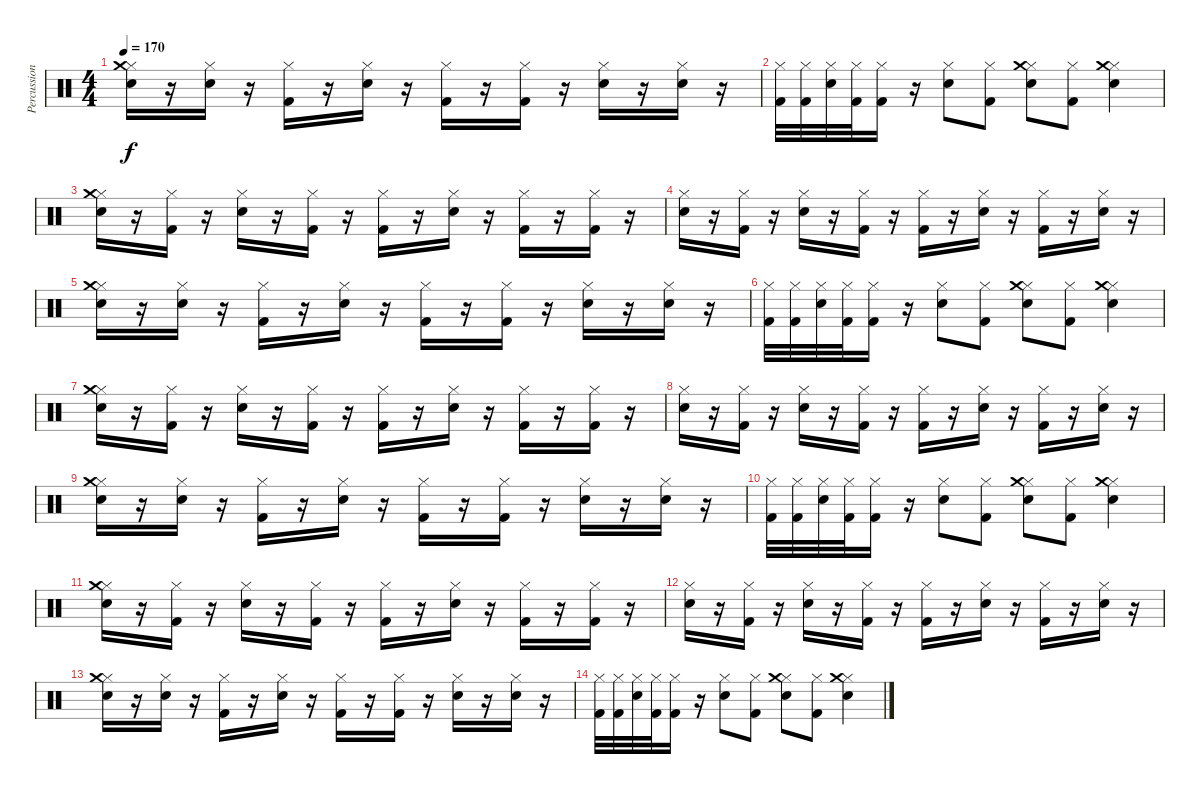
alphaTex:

\track ("Percussion" "Percussion") {instrument percussion}
\staff {score}
\articulation defaults
\ts (4 4)
\tempo 170
\clef neutral
\ks c
("Hi-Hat (closed)" "Snare (hit) 2" "Crash medium (hit)").16{dy f} r.16 ("Snare (hit) 2" "Hi-Hat (closed)").16 r.16 ("Kick (hit) 2" "Hi-Hat (closed)").16 r.16 ("Snare (hit) 2" "Hi-Hat (closed)").16 r.16 ("Kick (hit) 2" "Hi-Hat (closed)").16 r.16 ("Kick (hit) 2" "Hi-Hat (closed)").16 r.16 ("Snare (hit) 2" "Hi-Hat (closed)").16 r.16 ("Snare (hit) 2" "Hi-Hat (closed)").16 r.16 |
("Kick (hit) 2" "Hi-Hat (closed)").32 ("Kick (hit) 2" "Hi-Hat (closed)").32 ("Snare (hit) 2" "Hi-Hat (closed)").32 ("Kick (hit) 2" "Hi-Hat (closed)").32 ("Kick (hit) 2" "Hi-Hat (closed)").16 r.16 ("Snare (hit) 2" "Hi-Hat (closed)").8 ("Kick (hit) 2" "Hi-Hat (closed)").8 ("Snare (hit) 2" "Hi-Hat (closed)" "Crash medium (hit)").8 ("Kick (hit) 2" "Hi-Hat (closed)").8 ("Snare (hit) 2" "Hi-Hat (closed)" "Crash medium (hit)").4 |
("Snare (hit) 2" "Hi-Hat (closed)" "Crash medium (hit)").16 r.16 ("Kick (hit) 2" "Hi-Hat (closed)").16 r.16 ("Snare (hit) 2" "Hi-Hat (closed)").16 r.16 ("Kick (hit) 2" "Hi-Hat (closed)").16 r.16 ("Kick (hit) 2" "Hi-Hat (closed)").16 r.16 ("Snare (hit) 2" "Hi-Hat (closed)").16 r.16 ("Kick (hit) 2" "Hi-Hat (closed)").16 r.16 ("Kick (hit) 2" "Hi-Hat (closed)").16 r.16 |
("Snare (hit) 2" "Hi-Hat (closed)").16 r.16 ("Kick (hit) 2" "Hi-Hat (closed)").16 r.16 ("Snare (hit) 2" "Hi-Hat (closed)").16 r.16 ("Kick (hit) 2" "Hi-Hat (closed)").16 r.16 ("Kick (hit) 2" "Hi-Hat (closed)").16 r.16 ("Snare (hit) 2" "Hi-Hat (closed)").16 r.16 ("Kick (hit) 2" "Hi-Hat (closed)").16 r.16 ("Snare (hit) 2" "Hi-Hat (closed)").16 r.16 |
("Hi-Hat (closed)" "Snare (hit) 2" "Crash medium (hit)").16 r.16 ("Snare (hit) 2" "Hi-Hat (closed)").16 r.16 ("Kick (hit) 2" "Hi-Hat (closed)").16 r.16 ("Snare (hit) 2" "Hi-Hat (closed)").16 r.16 ("Kick (hit) 2" "Hi-Hat (closed)").16 r.16 ("Kick (hit) 2" "Hi-Hat (closed)").16 r.16 ("Snare (hit) 2" "Hi-Hat (closed)").16 r.16 ("Snare (hit) 2" "Hi-Hat (closed)").16 r.16 |
("Kick (hit) 2" "Hi-Hat (closed)").32 ("Kick (hit) 2" "Hi-Hat (closed)").32 ("Snare (hit) 2" "Hi-Hat (closed)").32 ("Kick (hit) 2" "Hi-Hat (closed)").32 ("Kick (hit) 2" "Hi-Hat (closed)").16 r.16 ("Snare (hit) 2" "Hi-Hat (closed)").8 ("Kick (hit) 2" "Hi-Hat (closed)").8 ("Snare (hit) 2" "Hi-Hat (closed)" "Crash medium (hit)").8 ("Kick (hit) 2" "Hi-Hat (closed)").8 ("Snare (hit) 2" "Hi-Hat (closed)" "Crash medium (hit)").4 |
("Snare (hit) 2" "Hi-Hat (closed)" "Crash medium (hit)").16 r.16 ("Kick (hit) 2" "Hi-Hat (closed)").16 r.16 ("Snare (hit) 2" "Hi-Hat (closed)").16 r.16 ("Kick (hit) 2" "Hi-Hat (closed)").16 r.16 ("Kick (hit) 2" "Hi-Hat (closed)").16 r.16 ("Snare (hit) 2" "Hi-Hat (closed)").16 r.16 ("Kick (hit) 2" "Hi-Hat (closed)").16 r.16 ("Kick (hit) 2" "Hi-Hat (closed)").16 r.16 |
("Snare (hit) 2" "Hi-Hat (closed)").16 r.16 ("Kick (hit) 2" "Hi-Hat (closed)").16 r.16 ("Snare (hit) 2" "Hi-Hat (closed)").16 r.16 ("Kick (hit) 2" "Hi-Hat (closed)").16 r.16 ("Kick (hit) 2" "Hi-Hat (closed)").16 r.16 ("Snare (hit) 2" "Hi-Hat (closed)").16 r.16 ("Kick (hit) 2" "Hi-Hat (closed)").16 r.16 ("Snare (hit) 2" "Hi-Hat (closed)").16 r.16 |
("Hi-Hat (closed)" "Snare (hit) 2" "Crash medium (hit)").16 r.16 ("Snare (hit) 2" "Hi-Hat (closed)").16 r.16 ("Kick (hit) 2" "Hi-Hat (closed)").16 r.16 ("Snare (hit) 2" "Hi-Hat (closed)").16 r.16 ("Kick (hit) 2" "Hi-Hat (closed)").16 r.16 ("Kick (hit) 2" "Hi-Hat (closed)").16 r.16 ("Snare (hit) 2" "Hi-Hat (closed)").16 r.16 ("Snare (hit) 2" "Hi-Hat (closed)").16 r.16 |
("Kick (hit) 2" "Hi-Hat (closed)").32 ("Kick (hit) 2" "Hi-Hat (closed)").32 ("Snare (hit) 2" "Hi-Hat (closed)").32 ("Kick (hit) 2" "Hi-Hat (closed)").32 ("Kick (hit) 2" "Hi-Hat (closed)").16 r.16 ("Snare (hit) 2" "Hi-Hat (closed)").8 ("Kick (hit) 2" "Hi-Hat (closed)").8 ("Snare (hit) 2" "Hi-Hat (closed)" "Crash medium (hit)").8 ("Kick (hit) 2" "Hi-Hat (closed)").8 ("Snare (hit) 2" "Hi-Hat (closed)" "Crash medium (hit)").4 |
("Snare (hit) 2" "Hi-Hat (closed)" "Crash medium (hit)").16 r.16 ("Kick (hit) 2" "Hi-Hat (closed)").16 r.16 ("Snare (hit) 2" "Hi-Hat (closed)").16 r.16 ("Kick (hit) 2" "Hi-Hat (closed)").16 r.16 ("Kick (hit) 2" "Hi-Hat (closed)").16 r.16 ("Snare (hit) 2" "Hi-Hat (closed)").16 r.16 ("Kick (hit) 2" "Hi-Hat (closed)").16 r.16 ("Kick (hit) 2" "Hi-Hat (closed)").16 r.16 |
("Snare (hit) 2" "Hi-Hat (closed)").16 r.16 ("Kick (hit) 2" "Hi-Hat (closed)").16 r.16 ("Snare (hit) 2" "Hi-Hat (closed)").16 r.16 ("Kick (hit) 2" "Hi-Hat (closed)").16 r.16 ("Kick (hit) 2" "Hi-Hat (closed)").16 r.16 ("Snare (hit) 2" "Hi-Hat (closed)").16 r.16 ("Kick (hit) 2" "Hi-Hat (closed)").16 r.16 ("Snare (hit) 2" "Hi-Hat (closed)").16 r.16 |
("Hi-Hat (closed)" "Snare (hit) 2" "Crash medium (hit)").16 r.16 ("Snare (hit) 2" "Hi-Hat (closed)").16 r.16 ("Kick (hit) 2" "Hi-Hat (closed)").16 r.16 ("Snare (hit) 2" "Hi-Hat (closed)").16 r.16 ("Kick (hit) 2" "Hi-Hat (closed)").16 r.16 ("Kick (hit) 2" "Hi-Hat (closed)").16 r.16 ("Snare (hit) 2" "Hi-Hat (closed)").16 r.16 ("Snare (hit) 2" "Hi-Hat (closed)").16 r.16 |
("Kick (hit) 2" "Hi-Hat (closed)").32 ("Kick (hit) 2" "Hi-Hat (closed)").32 ("Snare (hit) 2" "Hi-Hat (closed)").32 ("Kick (hit) 2" "Hi-Hat (closed)").32 ("Kick (hit) 2" "Hi-Hat (closed)").16 r.16 ("Snare (hit) 2" "Hi-Hat (closed)").8 ("Kick (hit) 2" "Hi-Hat (closed)").8 ("Snare (hit) 2" "Hi-Hat (closed)" "Crash medium (hit)").8 ("Kick (hit) 2" "Hi-Hat (closed)").8 ("Snare (hit) 2" "Hi-Hat (closed)" "Crash medium (hit)").4
